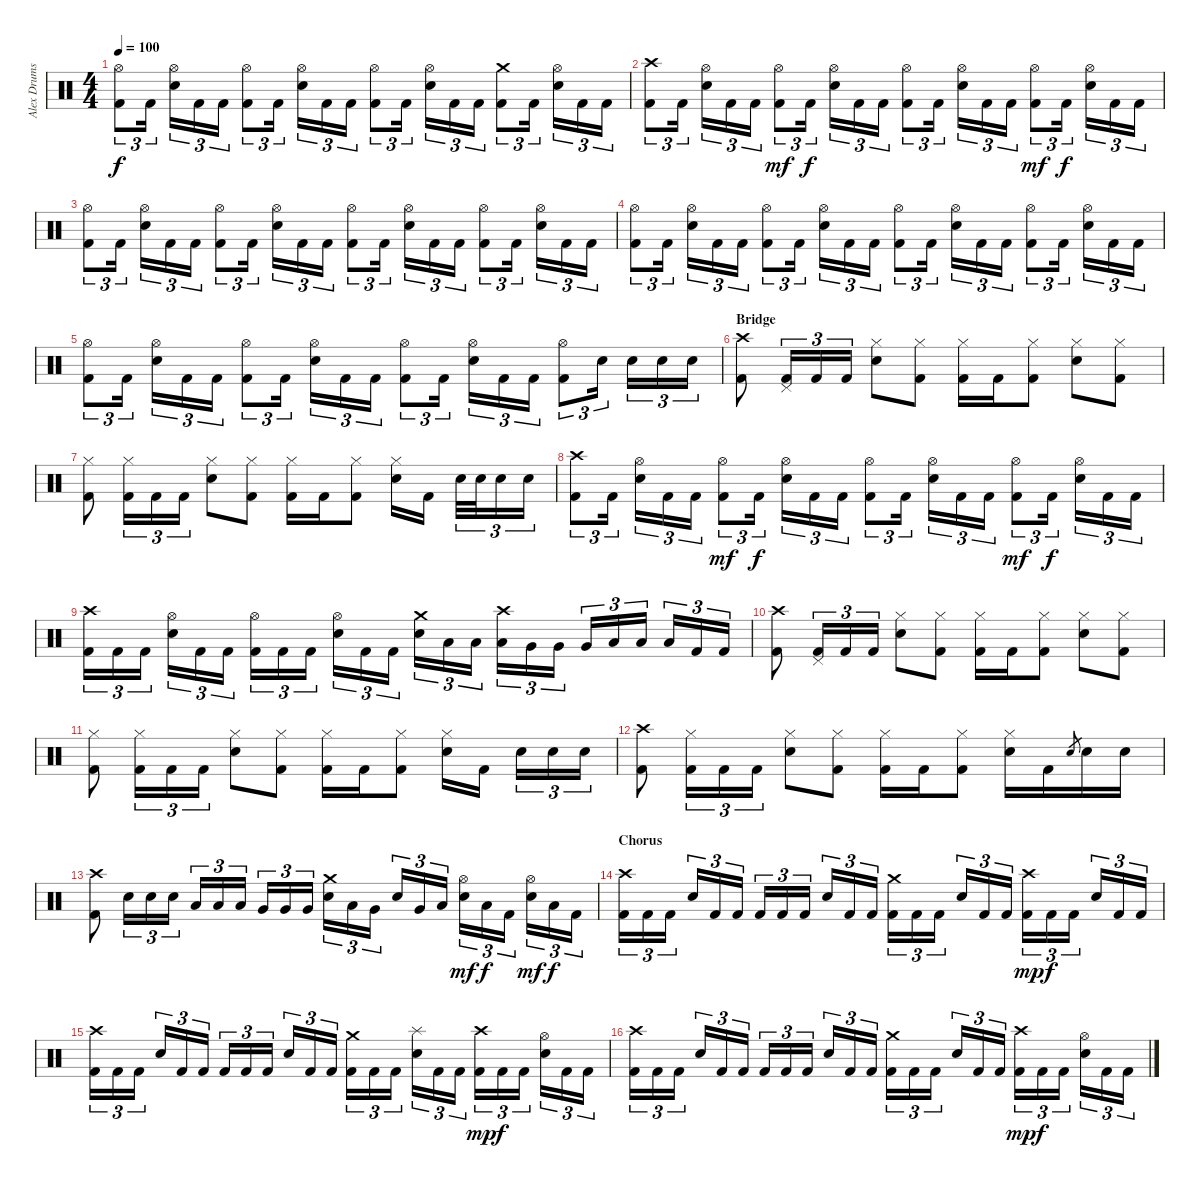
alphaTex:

\track ("Alex Drums" "Alex Drums") {instrument percussion}
\staff {score}
\articulation defaults
\ts (4 4)
\tempo 100
\clef neutral
\ks c
("Hi-Hat (open)" "Kick (hit) 2").8{tu (3 2) dy f} "Kick (hit) 2".16{tu (3 2)} ("Hi-Hat (open)" "Electric Snare (hit)").16{tu (3 2)} "Kick (hit) 2".16{tu (3 2)} "Kick (hit) 2".16{tu (3 2)} ("Hi-Hat (open)" "Kick (hit) 2").8{tu (3 2)} "Kick (hit) 2".16{tu (3 2)} ("Hi-Hat (open)" "Electric Snare (hit)").16{tu (3 2)} "Kick (hit) 2".16{tu (3 2)} "Kick (hit) 2".16{tu (3 2)} ("Hi-Hat (open)" "Kick (hit) 2").8{tu (3 2)} "Kick (hit) 2".16{tu (3 2)} ("Hi-Hat (open)" "Electric Snare (hit)").16{tu (3 2)} "Kick (hit) 2".16{tu (3 2)} "Kick (hit) 2".16{tu (3 2)} ("Crash medium (hit)" "Kick (hit) 2").8{tu (3 2)} "Kick (hit) 2".16{tu (3 2)} ("Hi-Hat (open)" "Electric Snare (hit)").16{tu (3 2)} "Kick (hit) 2".16{tu (3 2)} "Kick (hit) 2".16{tu (3 2)} |
("Crash high (hit)" "Kick (hit) 2").8{tu (3 2)} "Kick (hit) 2".16{tu (3 2)} ("Hi-Hat (open)" "Electric Snare (hit)").16{tu (3 2)} "Kick (hit) 2".16{tu (3 2)} "Kick (hit) 2".16{tu (3 2)} ("Hi-Hat (open)" "Kick (hit) 2").8{tu (3 2) dy mf} "Kick (hit) 2".16{tu (3 2) dy f} ("Hi-Hat (open)" "Electric Snare (hit)").16{tu (3 2)} "Kick (hit) 2".16{tu (3 2)} "Kick (hit) 2".16{tu (3 2)} ("Hi-Hat (open)" "Kick (hit) 2").8{tu (3 2)} "Kick (hit) 2".16{tu (3 2)} ("Hi-Hat (open)" "Electric Snare (hit)").16{tu (3 2)} "Kick (hit) 2".16{tu (3 2)} "Kick (hit) 2".16{tu (3 2)} ("Hi-Hat (open)" "Kick (hit) 2").8{tu (3 2) dy mf} "Kick (hit) 2".16{tu (3 2) dy f} ("Hi-Hat (open)" "Electric Snare (hit)").16{tu (3 2)} "Kick (hit) 2".16{tu (3 2)} "Kick (hit) 2".16{tu (3 2)} |
("Hi-Hat (open)" "Kick (hit) 2").8{tu (3 2)} "Kick (hit) 2".16{tu (3 2)} ("Hi-Hat (open)" "Electric Snare (hit)").16{tu (3 2)} "Kick (hit) 2".16{tu (3 2)} "Kick (hit) 2".16{tu (3 2)} ("Hi-Hat (open)" "Kick (hit) 2").8{tu (3 2)} "Kick (hit) 2".16{tu (3 2)} ("Hi-Hat (open)" "Electric Snare (hit)").16{tu (3 2)} "Kick (hit) 2".16{tu (3 2)} "Kick (hit) 2".16{tu (3 2)} ("Hi-Hat (open)" "Kick (hit) 2").8{tu (3 2)} "Kick (hit) 2".16{tu (3 2)} ("Hi-Hat (open)" "Electric Snare (hit)").16{tu (3 2)} "Kick (hit) 2".16{tu (3 2)} "Kick (hit) 2".16{tu (3 2)} ("Hi-Hat (open)" "Kick (hit) 2").8{tu (3 2)} "Kick (hit) 2".16{tu (3 2)} ("Hi-Hat (open)" "Electric Snare (hit)").16{tu (3 2)} "Kick (hit) 2".16{tu (3 2)} "Kick (hit) 2".16{tu (3 2)} |
("Hi-Hat (open)" "Kick (hit) 2").8{tu (3 2)} "Kick (hit) 2".16{tu (3 2)} ("Hi-Hat (open)" "Electric Snare (hit)").16{tu (3 2)} "Kick (hit) 2".16{tu (3 2)} "Kick (hit) 2".16{tu (3 2)} ("Hi-Hat (open)" "Kick (hit) 2").8{tu (3 2)} "Kick (hit) 2".16{tu (3 2)} ("Hi-Hat (open)" "Electric Snare (hit)").16{tu (3 2)} "Kick (hit) 2".16{tu (3 2)} "Kick (hit) 2".16{tu (3 2)} ("Hi-Hat (open)" "Kick (hit) 2").8{tu (3 2)} "Kick (hit) 2".16{tu (3 2)} ("Hi-Hat (open)" "Electric Snare (hit)").16{tu (3 2)} "Kick (hit) 2".16{tu (3 2)} "Kick (hit) 2".16{tu (3 2)} ("Hi-Hat (open)" "Kick (hit) 2").8{tu (3 2)} "Kick (hit) 2".16{tu (3 2)} ("Hi-Hat (open)" "Electric Snare (hit)").16{tu (3 2)} "Kick (hit) 2".16{tu (3 2)} "Kick (hit) 2".16{tu (3 2)} |
("Hi-Hat (open)" "Kick (hit) 2").8{tu (3 2)} "Kick (hit) 2".16{tu (3 2)} ("Hi-Hat (open)" "Electric Snare (hit)").16{tu (3 2)} "Kick (hit) 2".16{tu (3 2)} "Kick (hit) 2".16{tu (3 2)} ("Hi-Hat (open)" "Kick (hit) 2").8{tu (3 2)} "Kick (hit) 2".16{tu (3 2)} ("Hi-Hat (open)" "Electric Snare (hit)").16{tu (3 2)} "Kick (hit) 2".16{tu (3 2)} "Kick (hit) 2".16{tu (3 2)} ("Hi-Hat (open)" "Kick (hit) 2").8{tu (3 2)} "Kick (hit) 2".16{tu (3 2)} ("Hi-Hat (open)" "Electric Snare (hit)").16{tu (3 2)} "Kick (hit) 2".16{tu (3 2)} "Kick (hit) 2".16{tu (3 2)} ("Hi-Hat (open)" "Kick (hit) 2").8{tu (3 2)} "Electric Snare (hit)".16{tu (3 2)} "Electric Snare (hit)".16{tu (3 2)} "Electric Snare (hit)".16{tu (3 2)} "Electric Snare (hit)".16{tu (3 2)} |
\section ("" "Bridge")
("Crash high (hit)" "Kick (hit) 2").8 ("Pedal Hi-Hat (hit)" "Kick (hit) 2").16{tu (3 2)} "Kick (hit) 2".16{tu (3 2)} "Kick (hit) 2".16{tu (3 2)} ("Hi-Hat (closed)" "Electric Snare (hit)").8 ("Hi-Hat (closed)" "Kick (hit) 2").8 ("Hi-Hat (closed)" "Kick (hit) 2").16 "Kick (hit) 2".16 ("Hi-Hat (closed)" "Kick (hit) 2").8 ("Hi-Hat (closed)" "Electric Snare (hit)").8 ("Hi-Hat (closed)" "Kick (hit) 2").8 |
("Hi-Hat (closed)" "Kick (hit) 2").8 ("Hi-Hat (closed)" "Kick (hit) 2").16{tu (3 2)} "Kick (hit) 2".16{tu (3 2)} "Kick (hit) 2".16{tu (3 2)} ("Hi-Hat (closed)" "Electric Snare (hit)").8 ("Hi-Hat (closed)" "Kick (hit) 2").8 ("Hi-Hat (closed)" "Kick (hit) 2").16 "Kick (hit) 2".16 ("Hi-Hat (closed)" "Kick (hit) 2").8 ("Hi-Hat (closed)" "Electric Snare (hit)").16 "Kick (hit) 2".16 "Electric Snare (hit)".32{tu (3 2)} "Electric Snare (hit)".32{tu (3 2)} "Electric Snare (hit)".16{tu (3 2)} "Electric Snare (hit)".16{tu (3 2)} |
("Crash high (hit)" "Kick (hit) 2").8{tu (3 2)} "Kick (hit) 2".16{tu (3 2)} ("Hi-Hat (open)" "Electric Snare (hit)").16{tu (3 2)} "Kick (hit) 2".16{tu (3 2)} "Kick (hit) 2".16{tu (3 2)} ("Hi-Hat (open)" "Kick (hit) 2").8{tu (3 2) dy mf} "Kick (hit) 2".16{tu (3 2) dy f} ("Hi-Hat (open)" "Electric Snare (hit)").16{tu (3 2)} "Kick (hit) 2".16{tu (3 2)} "Kick (hit) 2".16{tu (3 2)} ("Hi-Hat (open)" "Kick (hit) 2").8{tu (3 2)} "Kick (hit) 2".16{tu (3 2)} ("Hi-Hat (open)" "Electric Snare (hit)").16{tu (3 2)} "Kick (hit) 2".16{tu (3 2)} "Kick (hit) 2".16{tu (3 2)} ("Hi-Hat (open)" "Kick (hit) 2").8{tu (3 2) dy mf} "Kick (hit) 2".16{tu (3 2) dy f} ("Hi-Hat (open)" "Electric Snare (hit)").16{tu (3 2)} "Kick (hit) 2".16{tu (3 2)} "Kick (hit) 2".16{tu (3 2)} |
("Crash high (hit)" "Kick (hit) 2").16{tu (3 2)} "Kick (hit) 2".16{tu (3 2)} "Kick (hit) 2".16{tu (3 2)} ("Hi-Hat (open)" "Electric Snare (hit)").16{tu (3 2)} "Kick (hit) 2".16{tu (3 2)} "Kick (hit) 2".16{tu (3 2)} ("Hi-Hat (open)" "Kick (hit) 2").16{tu (3 2)} "Kick (hit) 2".16{tu (3 2)} "Kick (hit) 2".16{tu (3 2)} ("Hi-Hat (open)" "Electric Snare (hit)").16{tu (3 2)} "Kick (hit) 2".16{tu (3 2)} "Kick (hit) 2".16{tu (3 2)} ("Crash medium (hit)" "Electric Snare (hit)").16{tu (3 2)} "Low Tom (hit)".16{tu (3 2)} "Low Tom (hit)".16{tu (3 2)} ("Crash high (hit)" "Low Tom (hit)").16{tu (3 2)} "Very Low Tom (hit)".16{tu (3 2)} "Very Low Tom (hit)".16{tu (3 2)} "Very Low Tom (hit)".16{tu (3 2)} "Low Floor Tom (hit)".16{tu (3 2)} "Low Floor Tom (hit)".16{tu (3 2)} "Low Floor Tom (hit)".16{tu (3 2)} "Kick (hit) 2".16{tu (3 2)} "Kick (hit) 2".16{tu (3 2)} |
("Crash high (hit)" "Kick (hit) 2").8 ("Pedal Hi-Hat (hit)" "Kick (hit) 2").16{tu (3 2)} "Kick (hit) 2".16{tu (3 2)} "Kick (hit) 2".16{tu (3 2)} ("Hi-Hat (closed)" "Electric Snare (hit)").8 ("Hi-Hat (closed)" "Kick (hit) 2").8 ("Hi-Hat (closed)" "Kick (hit) 2").16 "Kick (hit) 2".16 ("Hi-Hat (closed)" "Kick (hit) 2").8 ("Hi-Hat (closed)" "Electric Snare (hit)").8 ("Hi-Hat (closed)" "Kick (hit) 2").8 |
("Hi-Hat (closed)" "Kick (hit) 2").8 ("Hi-Hat (closed)" "Kick (hit) 2").16{tu (3 2)} "Kick (hit) 2".16{tu (3 2)} "Kick (hit) 2".16{tu (3 2)} ("Hi-Hat (closed)" "Electric Snare (hit)").8 ("Hi-Hat (closed)" "Kick (hit) 2").8 ("Hi-Hat (closed)" "Kick (hit) 2").16 "Kick (hit) 2".16 ("Hi-Hat (closed)" "Kick (hit) 2").8 ("Hi-Hat (closed)" "Electric Snare (hit)").16 "Kick (hit) 2".16 "Electric Snare (hit)".16{tu (3 2)} "Electric Snare (hit)".16{tu (3 2)} "Electric Snare (hit)".16{tu (3 2)} |
("Crash high (hit)" "Kick (hit) 2").8 ("Hi-Hat (closed)" "Kick (hit) 2").16{tu (3 2)} "Kick (hit) 2".16{tu (3 2)} "Kick (hit) 2".16{tu (3 2)} ("Hi-Hat (closed)" "Electric Snare (hit)").8 ("Hi-Hat (closed)" "Kick (hit) 2").8 ("Hi-Hat (closed)" "Kick (hit) 2").16 "Kick (hit) 2".16 ("Hi-Hat (closed)" "Kick (hit) 2").8 ("Hi-Hat (closed)" "Electric Snare (hit)").16 "Kick (hit) 2".16 "Electric Snare (hit)".8{gr} "Electric Snare (hit)".16 "Electric Snare (hit)".16 |
("Crash high (hit)" "Kick (hit) 2").8 "Electric Snare (hit)".16{tu (3 2)} "Electric Snare (hit)".16{tu (3 2)} "Electric Snare (hit)".16{tu (3 2)} "Low Tom (hit)".16{tu (3 2)} "Low Tom (hit)".16{tu (3 2)} "Low Tom (hit)".16{tu (3 2)} "Very Low Tom (hit)".16{tu (3 2)} "Very Low Tom (hit)".16{tu (3 2)} "Very Low Tom (hit)".16{tu (3 2)} ("Crash medium (hit)" "Electric Snare (hit)").16{tu (3 2)} "Low Tom (hit)".16{tu (3 2)} "Very Low Tom (hit)".16{tu (3 2)} "Electric Snare (hit)".16{tu (3 2)} "Very Low Tom (hit)".16{tu (3 2)} "Low Floor Tom (hit)".16{tu (3 2)} ("Hi-Hat (open)" "Electric Snare (hit)").16{tu (3 2) dy mf} "Low Floor Tom (hit)".16{tu (3 2) dy f} "Kick (hit) 2".16{tu (3 2)} ("Hi-Hat (open)" "Electric Snare (hit)").16{tu (3 2) dy mf} "Low Floor Tom (hit)".16{tu (3 2) dy f} "Kick (hit) 2".16{tu (3 2)} |
\section ("" "Chorus")
("Crash high (hit)" "Kick (hit) 2").16{tu (3 2)} "Kick (hit) 2".16{tu (3 2)} "Kick (hit) 2".16{tu (3 2)} "Electric Snare (hit)".16{tu (3 2)} "Kick (hit) 2".16{tu (3 2)} "Kick (hit) 2".16{tu (3 2)} "Kick (hit) 2".16{tu (3 2)} "Kick (hit) 2".16{tu (3 2)} "Kick (hit) 2".16{tu (3 2)} "Electric Snare (hit)".16{tu (3 2)} "Kick (hit) 2".16{tu (3 2)} "Kick (hit) 2".16{tu (3 2)} ("Crash medium (hit)" "Kick (hit) 2").16{tu (3 2)} "Kick (hit) 2".16{tu (3 2)} "Kick (hit) 2".16{tu (3 2)} "Electric Snare (hit)".16{tu (3 2)} "Kick (hit) 2".16{tu (3 2)} "Kick (hit) 2".16{tu (3 2)} ("Crash high (hit)" "Kick (hit) 2").16{tu (3 2) dy mp} "Kick (hit) 2".16{tu (3 2) dy f} "Kick (hit) 2".16{tu (3 2)} "Electric Snare (hit)".16{tu (3 2)} "Kick (hit) 2".16{tu (3 2)} "Kick (hit) 2".16{tu (3 2)} |
("Crash high (hit)" "Kick (hit) 2").16{tu (3 2)} "Kick (hit) 2".16{tu (3 2)} "Kick (hit) 2".16{tu (3 2)} "Electric Snare (hit)".16{tu (3 2)} "Kick (hit) 2".16{tu (3 2)} "Kick (hit) 2".16{tu (3 2)} "Kick (hit) 2".16{tu (3 2)} "Kick (hit) 2".16{tu (3 2)} "Kick (hit) 2".16{tu (3 2)} "Electric Snare (hit)".16{tu (3 2)} "Kick (hit) 2".16{tu (3 2)} "Kick (hit) 2".16{tu (3 2)} ("Crash medium (hit)" "Kick (hit) 2").16{tu (3 2)} "Kick (hit) 2".16{tu (3 2)} "Kick (hit) 2".16{tu (3 2)} ("Splash (hit)" "Electric Snare (hit)").16{tu (3 2)} "Kick (hit) 2".16{tu (3 2)} "Kick (hit) 2".16{tu (3 2)} ("Crash high (hit)" "Kick (hit) 2").16{tu (3 2) dy mp} "Kick (hit) 2".16{tu (3 2) dy f} "Kick (hit) 2".16{tu (3 2)} ("Hi-Hat (open)" "Electric Snare (hit)").16{tu (3 2)} "Kick (hit) 2".16{tu (3 2)} "Kick (hit) 2".16{tu (3 2)} |
("Crash high (hit)" "Kick (hit) 2").16{tu (3 2)} "Kick (hit) 2".16{tu (3 2)} "Kick (hit) 2".16{tu (3 2)} "Electric Snare (hit)".16{tu (3 2)} "Kick (hit) 2".16{tu (3 2)} "Kick (hit) 2".16{tu (3 2)} "Kick (hit) 2".16{tu (3 2)} "Kick (hit) 2".16{tu (3 2)} "Kick (hit) 2".16{tu (3 2)} "Electric Snare (hit)".16{tu (3 2)} "Kick (hit) 2".16{tu (3 2)} "Kick (hit) 2".16{tu (3 2)} ("Crash medium (hit)" "Kick (hit) 2").16{tu (3 2)} "Kick (hit) 2".16{tu (3 2)} "Kick (hit) 2".16{tu (3 2)} "Electric Snare (hit)".16{tu (3 2)} "Kick (hit) 2".16{tu (3 2)} "Kick (hit) 2".16{tu (3 2)} ("Crash high (hit)" "Kick (hit) 2").16{tu (3 2) dy mp} "Kick (hit) 2".16{tu (3 2) dy f} "Kick (hit) 2".16{tu (3 2)} ("Hi-Hat (open)" "Electric Snare (hit)").16{tu (3 2)} "Kick (hit) 2".16{tu (3 2)} "Kick (hit) 2".16{tu (3 2)}
